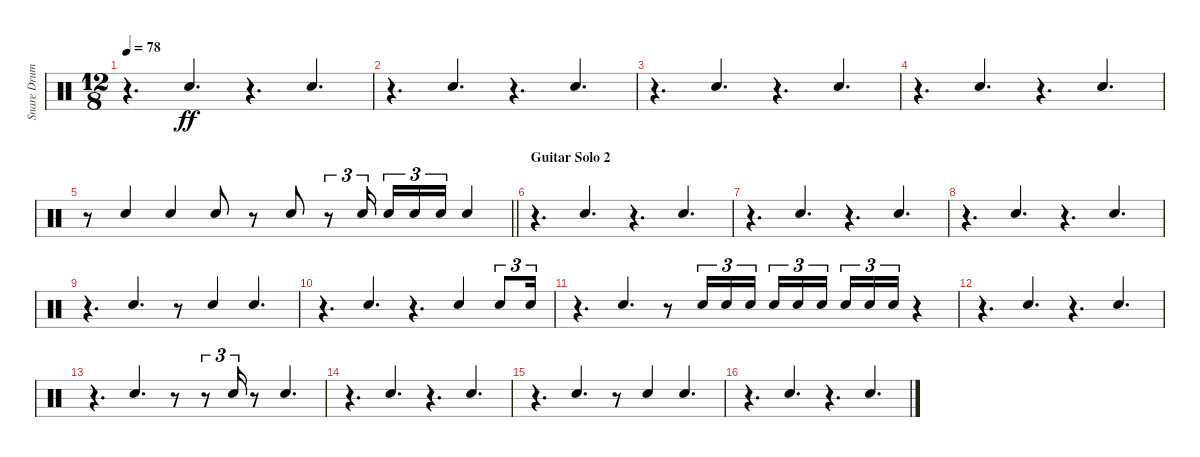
\track ("Snare Drum" "Snare Drum") {instrument percussion}
\staff {score}
\articulation defaults
\ts (12 8)
\tempo 78
\clef neutral
\ks c
r.4{d dy ff} "Electric Snare (hit)".4{d beam Up} r.4{d} "Electric Snare (hit)".4{d beam Up} |
r.4{d} "Electric Snare (hit)".4{d beam Up} r.4{d} "Electric Snare (hit)".4{d beam Up} |
r.4{d} "Electric Snare (hit)".4{d beam Up} r.4{d} "Electric Snare (hit)".4{d beam Up} |
r.4{d} "Electric Snare (hit)".4{d beam Up} r.4{d} "Electric Snare (hit)".4{d beam Up} |
\barLineRight lightlight
r.8 "Electric Snare (hit)".4{beam Up} "Electric Snare (hit)".4{beam Up} "Electric Snare (hit)".8{beam Up} r.8 "Electric Snare (hit)".8{beam Up} r.8{tu (3 2) beam Up} "Electric Snare (hit)".16{tu (3 2) beam Up} "Electric Snare (hit)".16{tu (3 2) beam Up} "Electric Snare (hit)".16{tu (3 2) beam Up} "Electric Snare (hit)".16{tu (3 2) beam Up} "Electric Snare (hit)".4{beam Up} |
\section ("" "Guitar Solo 2")
r.4{d} "Electric Snare (hit)".4{d beam Up} r.4{d} "Electric Snare (hit)".4{d beam Up} |
r.4{d} "Electric Snare (hit)".4{d beam Up} r.4{d} "Electric Snare (hit)".4{d beam Up} |
r.4{d} "Electric Snare (hit)".4{d beam Up} r.4{d} "Electric Snare (hit)".4{d beam Up} |
r.4{d} "Electric Snare (hit)".4{d beam Up} r.8 "Electric Snare (hit)".4{beam Up} "Electric Snare (hit)".4{d beam Up} |
r.4{d} "Electric Snare (hit)".4{d beam Up} r.4{d} "Electric Snare (hit)".4{beam Up} "Electric Snare (hit)".8{tu (3 2) beam Up} "Electric Snare (hit)".16{tu (3 2) beam Up} |
r.4{d} "Electric Snare (hit)".4{d beam Up} r.8 "Electric Snare (hit)".16{tu (3 2) beam Up} "Electric Snare (hit)".16{tu (3 2) beam Up} "Electric Snare (hit)".16{tu (3 2) beam Up beam splitsecondary} "Electric Snare (hit)".16{tu (3 2) beam Up} "Electric Snare (hit)".16{tu (3 2) beam Up} "Electric Snare (hit)".16{tu (3 2) beam Up} "Electric Snare (hit)".16{tu (3 2) beam Up} "Electric Snare (hit)".16{tu (3 2) beam Up} "Electric Snare (hit)".16{tu (3 2) beam Up} r.4 |
r.4{d} "Electric Snare (hit)".4{d beam Up} r.4{d} "Electric Snare (hit)".4{d beam Up} |
r.4{d} "Electric Snare (hit)".4{d beam Up} r.8 r.8{tu (3 2) beam Up} "Electric Snare (hit)".16{tu (3 2) beam Up} r.8 "Electric Snare (hit)".4{d beam Up} |
r.4{d} "Electric Snare (hit)".4{d beam Up} r.4{d} "Electric Snare (hit)".4{d beam Up} |
r.4{d} "Electric Snare (hit)".4{d beam Up} r.8 "Electric Snare (hit)".4{beam Up} "Electric Snare (hit)".4{d beam Up} |
r.4{d} "Electric Snare (hit)".4{d beam Up} r.4{d} "Electric Snare (hit)".4{d beam Up}
